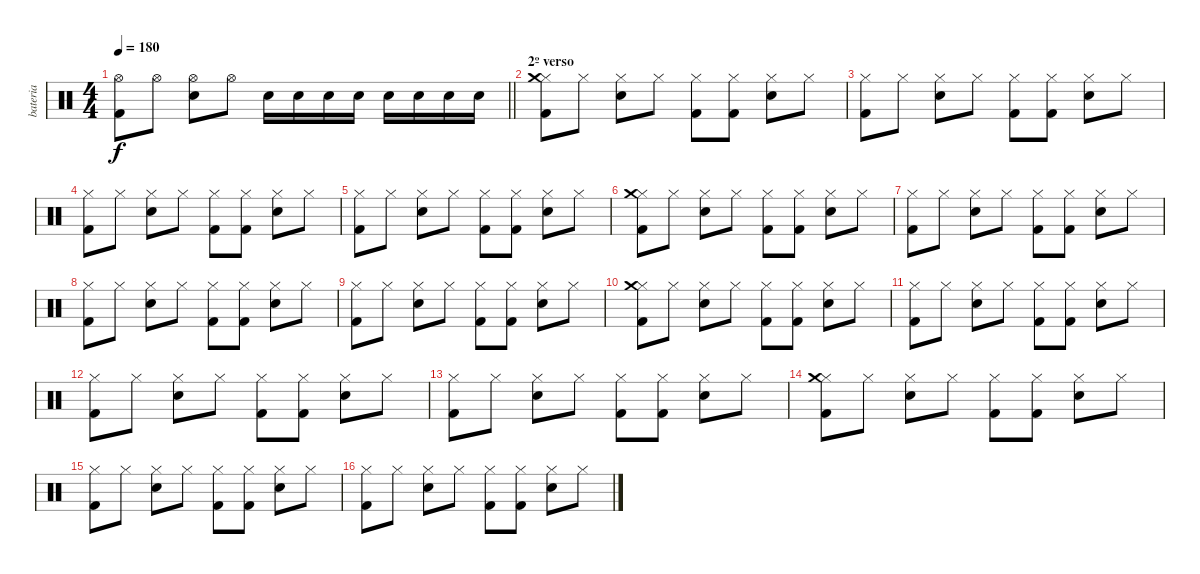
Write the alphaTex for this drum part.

\track ("bateria" "bateria") {instrument percussion}
\staff {score}
\articulation defaults
\ts (4 4)
\tempo 180
\clef neutral
\barLineRight lightlight
\ks c
("Hi-Hat (open)" "Kick (hit) 2").8{dy f} "Hi-Hat (open)".8 ("Hi-Hat (open)" "Electric Snare (hit)").8 "Hi-Hat (open)".8 "Electric Snare (hit)".16 "Electric Snare (hit)".16 "Electric Snare (hit)".16 "Electric Snare (hit)".16 "Electric Snare (hit)".16 "Electric Snare (hit)".16 "Electric Snare (hit)".16 "Electric Snare (hit)".16 |
\section ("" "2º verso")
("Hi-Hat (closed)" "Kick (hit) 2" "Crash medium (hit)").8 "Hi-Hat (closed)".8 ("Hi-Hat (closed)" "Electric Snare (hit)").8 "Hi-Hat (closed)".8 ("Hi-Hat (closed)" "Kick (hit) 2").8 ("Hi-Hat (closed)" "Kick (hit) 2").8 ("Hi-Hat (closed)" "Electric Snare (hit)").8 "Hi-Hat (closed)".8 |
("Hi-Hat (closed)" "Kick (hit) 2").8 "Hi-Hat (closed)".8 ("Hi-Hat (closed)" "Electric Snare (hit)").8 "Hi-Hat (closed)".8 ("Hi-Hat (closed)" "Kick (hit) 2").8 ("Hi-Hat (closed)" "Kick (hit) 2").8 ("Hi-Hat (closed)" "Electric Snare (hit)").8 "Hi-Hat (closed)".8 |
("Hi-Hat (closed)" "Kick (hit) 2").8 "Hi-Hat (closed)".8 ("Hi-Hat (closed)" "Electric Snare (hit)").8 "Hi-Hat (closed)".8 ("Hi-Hat (closed)" "Kick (hit) 2").8 ("Hi-Hat (closed)" "Kick (hit) 2").8 ("Hi-Hat (closed)" "Electric Snare (hit)").8 "Hi-Hat (closed)".8 |
("Hi-Hat (closed)" "Kick (hit) 2").8 "Hi-Hat (closed)".8 ("Hi-Hat (closed)" "Electric Snare (hit)").8 "Hi-Hat (closed)".8 ("Hi-Hat (closed)" "Kick (hit) 2").8 ("Hi-Hat (closed)" "Kick (hit) 2").8 ("Hi-Hat (closed)" "Electric Snare (hit)").8 "Hi-Hat (closed)".8 |
("Hi-Hat (closed)" "Kick (hit) 2" "Crash medium (hit)").8 "Hi-Hat (closed)".8 ("Hi-Hat (closed)" "Electric Snare (hit)").8 "Hi-Hat (closed)".8 ("Hi-Hat (closed)" "Kick (hit) 2").8 ("Hi-Hat (closed)" "Kick (hit) 2").8 ("Hi-Hat (closed)" "Electric Snare (hit)").8 "Hi-Hat (closed)".8 |
("Hi-Hat (closed)" "Kick (hit) 2").8 "Hi-Hat (closed)".8 ("Hi-Hat (closed)" "Electric Snare (hit)").8 "Hi-Hat (closed)".8 ("Hi-Hat (closed)" "Kick (hit) 2").8 ("Hi-Hat (closed)" "Kick (hit) 2").8 ("Hi-Hat (closed)" "Electric Snare (hit)").8 "Hi-Hat (closed)".8 |
("Hi-Hat (closed)" "Kick (hit) 2").8 "Hi-Hat (closed)".8 ("Hi-Hat (closed)" "Electric Snare (hit)").8 "Hi-Hat (closed)".8 ("Hi-Hat (closed)" "Kick (hit) 2").8 ("Hi-Hat (closed)" "Kick (hit) 2").8 ("Hi-Hat (closed)" "Electric Snare (hit)").8 "Hi-Hat (closed)".8 |
("Hi-Hat (closed)" "Kick (hit) 2").8 "Hi-Hat (closed)".8 ("Hi-Hat (closed)" "Electric Snare (hit)").8 "Hi-Hat (closed)".8 ("Hi-Hat (closed)" "Kick (hit) 2").8 ("Hi-Hat (closed)" "Kick (hit) 2").8 ("Hi-Hat (closed)" "Electric Snare (hit)").8 "Hi-Hat (closed)".8 |
("Hi-Hat (closed)" "Kick (hit) 2" "Crash medium (hit)").8 "Hi-Hat (closed)".8 ("Hi-Hat (closed)" "Electric Snare (hit)").8 "Hi-Hat (closed)".8 ("Hi-Hat (closed)" "Kick (hit) 2").8 ("Hi-Hat (closed)" "Kick (hit) 2").8 ("Hi-Hat (closed)" "Electric Snare (hit)").8 "Hi-Hat (closed)".8 |
("Hi-Hat (closed)" "Kick (hit) 2").8 "Hi-Hat (closed)".8 ("Hi-Hat (closed)" "Electric Snare (hit)").8 "Hi-Hat (closed)".8 ("Hi-Hat (closed)" "Kick (hit) 2").8 ("Hi-Hat (closed)" "Kick (hit) 2").8 ("Hi-Hat (closed)" "Electric Snare (hit)").8 "Hi-Hat (closed)".8 |
("Hi-Hat (closed)" "Kick (hit) 2").8 "Hi-Hat (closed)".8 ("Hi-Hat (closed)" "Electric Snare (hit)").8 "Hi-Hat (closed)".8 ("Hi-Hat (closed)" "Kick (hit) 2").8 ("Hi-Hat (closed)" "Kick (hit) 2").8 ("Hi-Hat (closed)" "Electric Snare (hit)").8 "Hi-Hat (closed)".8 |
("Hi-Hat (closed)" "Kick (hit) 2").8 "Hi-Hat (closed)".8 ("Hi-Hat (closed)" "Electric Snare (hit)").8 "Hi-Hat (closed)".8 ("Hi-Hat (closed)" "Kick (hit) 2").8 ("Hi-Hat (closed)" "Kick (hit) 2").8 ("Hi-Hat (closed)" "Electric Snare (hit)").8 "Hi-Hat (closed)".8 |
("Hi-Hat (closed)" "Kick (hit) 2" "Crash medium (hit)").8 "Hi-Hat (closed)".8 ("Hi-Hat (closed)" "Electric Snare (hit)").8 "Hi-Hat (closed)".8 ("Hi-Hat (closed)" "Kick (hit) 2").8 ("Hi-Hat (closed)" "Kick (hit) 2").8 ("Hi-Hat (closed)" "Electric Snare (hit)").8 "Hi-Hat (closed)".8 |
("Hi-Hat (closed)" "Kick (hit) 2").8 "Hi-Hat (closed)".8 ("Hi-Hat (closed)" "Electric Snare (hit)").8 "Hi-Hat (closed)".8 ("Hi-Hat (closed)" "Kick (hit) 2").8 ("Hi-Hat (closed)" "Kick (hit) 2").8 ("Hi-Hat (closed)" "Electric Snare (hit)").8 "Hi-Hat (closed)".8 |
("Hi-Hat (closed)" "Kick (hit) 2").8 "Hi-Hat (closed)".8 ("Hi-Hat (closed)" "Electric Snare (hit)").8 "Hi-Hat (closed)".8 ("Hi-Hat (closed)" "Kick (hit) 2").8 ("Hi-Hat (closed)" "Kick (hit) 2").8 ("Hi-Hat (closed)" "Electric Snare (hit)").8 "Hi-Hat (closed)".8
